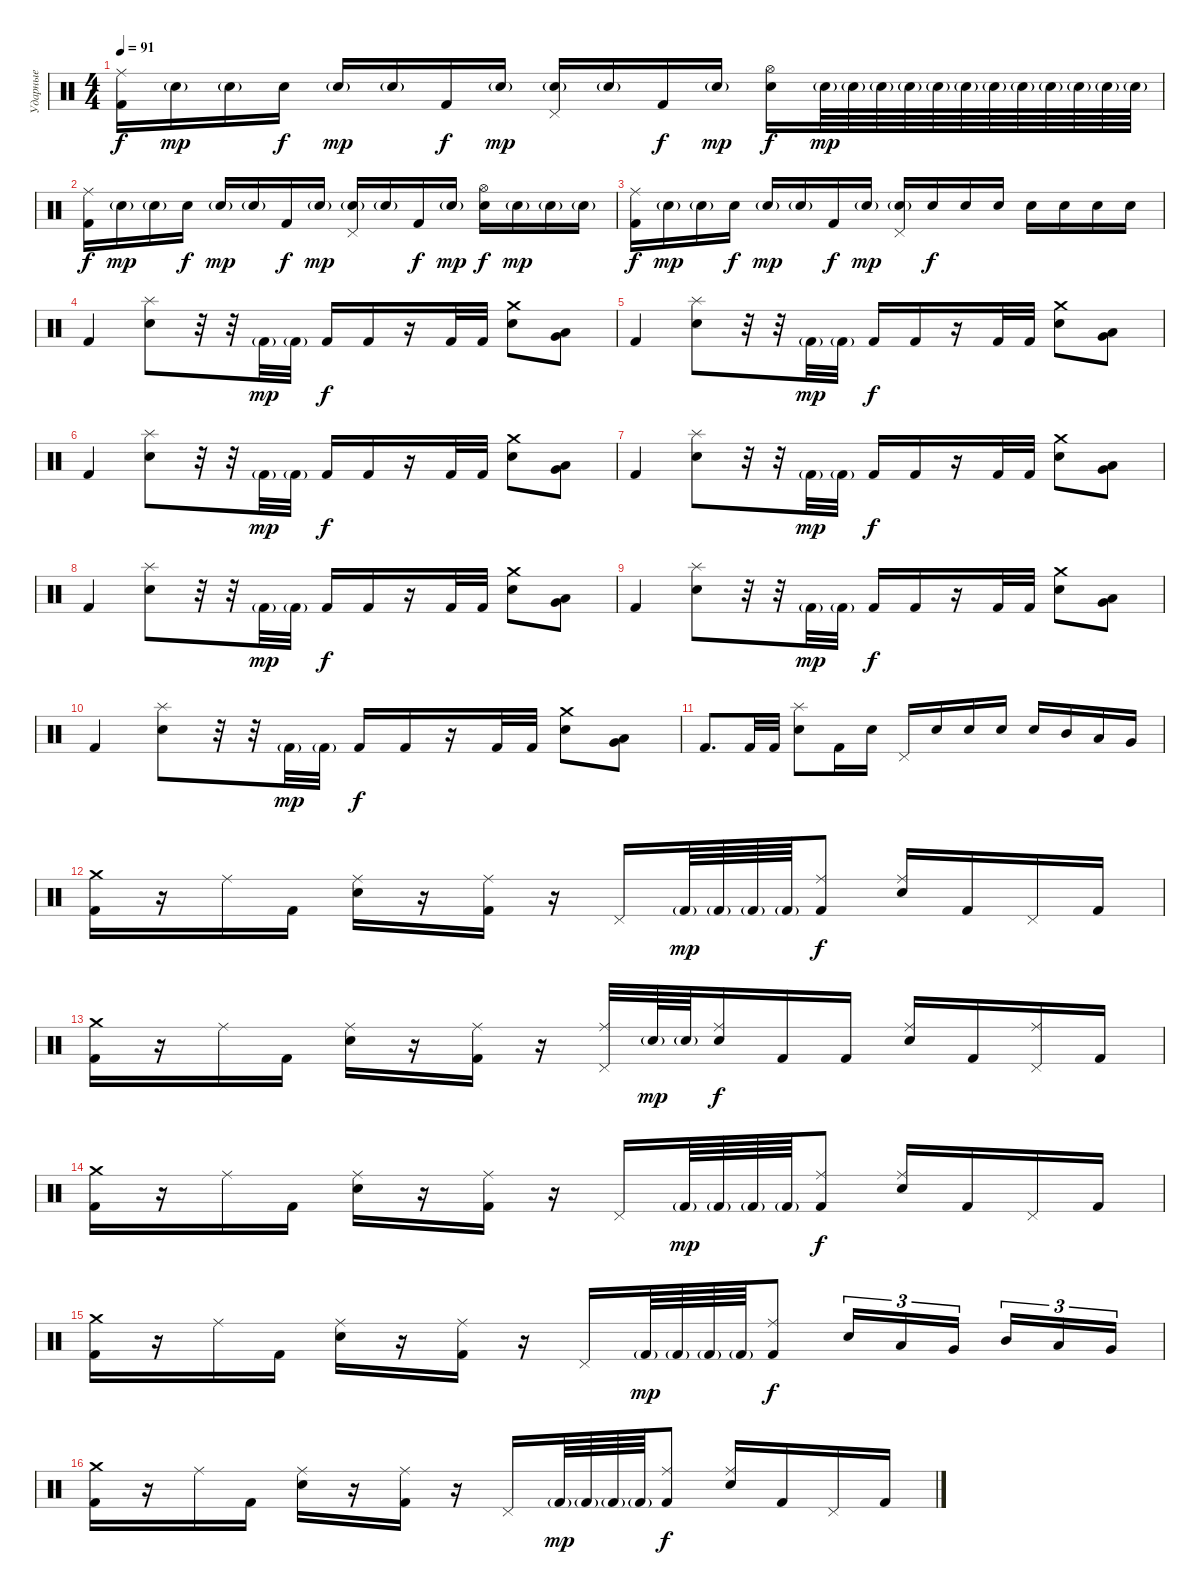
\track ("Ударные" "Ударные") {instrument percussion}
\staff {score}
\articulation defaults
\ts (4 4)
\tempo 91
\clef neutral
\ks c
("Ride (middle)" "Kick (hit) 2").16{dy f} "Snare (hit) 2"{g}.16{dy mp} "Snare (hit) 2"{g}.16 "Snare (hit) 2".16{dy f} "Snare (hit) 2"{g}.16{dy mp} "Snare (hit) 2"{g}.16 "Kick (hit) 2".16{dy f} "Snare (hit) 2"{g}.16{dy mp} ("Pedal Hi-Hat (hit)" "Snare (hit) 2"{g}).16 "Snare (hit) 2"{g}.16 "Kick (hit) 2".16{dy f} "Snare (hit) 2"{g}.16{dy mp} ("Hi-Hat (open)" "Snare (hit) 2").16{dy f} "Snare (hit) 2"{g}.64{dy mp} "Snare (hit) 2"{g}.64 "Snare (hit) 2"{g}.64 "Snare (hit) 2"{g}.64 "Snare (hit) 2"{g}.64 "Snare (hit) 2"{g}.64 "Snare (hit) 2"{g}.64 "Snare (hit) 2"{g}.64 "Snare (hit) 2"{g}.64 "Snare (hit) 2"{g}.64 "Snare (hit) 2"{g}.64 "Snare (hit) 2"{g}.64 |
("Ride (middle)" "Kick (hit) 2").16{dy f} "Snare (hit) 2"{g}.16{dy mp} "Snare (hit) 2"{g}.16 "Snare (hit) 2".16{dy f} "Snare (hit) 2"{g}.16{dy mp} "Snare (hit) 2"{g}.16 "Kick (hit) 2".16{dy f} "Snare (hit) 2"{g}.16{dy mp} ("Pedal Hi-Hat (hit)" "Snare (hit) 2"{g}).16 "Snare (hit) 2"{g}.16 "Kick (hit) 2".16{dy f} "Snare (hit) 2"{g}.16{dy mp} ("Hi-Hat (open)" "Snare (hit) 2").16{dy f} "Snare (hit) 2"{g}.16{dy mp} "Snare (hit) 2"{g}.16 "Snare (hit) 2"{g}.16 |
("Ride (middle)" "Kick (hit) 2").16{dy f} "Snare (hit) 2"{g}.16{dy mp} "Snare (hit) 2"{g}.16 "Snare (hit) 2".16{dy f} "Snare (hit) 2"{g}.16{dy mp} "Snare (hit) 2"{g}.16 "Kick (hit) 2".16{dy f} "Snare (hit) 2"{g}.16{dy mp} ("Pedal Hi-Hat (hit)" "Snare (hit) 2"{g}).16 "Snare (hit) 2".16{dy f} "Snare (hit) 2".16 "Snare (hit) 2".16 "Snare (hit) 2".16 "Snare (hit) 2".16 "Snare (hit) 2".16 "Snare (hit) 2".16 |
"Kick (hit) 2".4 ("Splash (hit)" "Snare (hit) 2").8 r.32 r.32 "Kick (hit) 2"{g}.32{dy mp} "Kick (hit) 2"{g}.32 "Kick (hit) 2".16{dy f} "Kick (hit) 2".16 r.16 "Kick (hit) 2".32 "Kick (hit) 2".32 ("Crash medium (hit)" "Snare (hit) 2").8 ("Low Tom (hit)" "Very Low Tom (hit)").8{bd 30} |
"Kick (hit) 2".4 ("Splash (hit)" "Snare (hit) 2").8 r.32 r.32 "Kick (hit) 2"{g}.32{dy mp} "Kick (hit) 2"{g}.32 "Kick (hit) 2".16{dy f} "Kick (hit) 2".16 r.16 "Kick (hit) 2".32 "Kick (hit) 2".32 ("Crash medium (hit)" "Snare (hit) 2").8 ("Low Tom (hit)" "Very Low Tom (hit)").8{bd 30} |
"Kick (hit) 2".4 ("Splash (hit)" "Snare (hit) 2").8 r.32 r.32 "Kick (hit) 2"{g}.32{dy mp} "Kick (hit) 2"{g}.32 "Kick (hit) 2".16{dy f} "Kick (hit) 2".16 r.16 "Kick (hit) 2".32 "Kick (hit) 2".32 ("Crash medium (hit)" "Snare (hit) 2").8 ("Low Tom (hit)" "Very Low Tom (hit)").8{bd 30} |
"Kick (hit) 2".4 ("Splash (hit)" "Snare (hit) 2").8 r.32 r.32 "Kick (hit) 2"{g}.32{dy mp} "Kick (hit) 2"{g}.32 "Kick (hit) 2".16{dy f} "Kick (hit) 2".16 r.16 "Kick (hit) 2".32 "Kick (hit) 2".32 ("Crash medium (hit)" "Snare (hit) 2").8 ("Low Tom (hit)" "Very Low Tom (hit)").8{bd 30} |
"Kick (hit) 2".4 ("Splash (hit)" "Snare (hit) 2").8 r.32 r.32 "Kick (hit) 2"{g}.32{dy mp} "Kick (hit) 2"{g}.32 "Kick (hit) 2".16{dy f} "Kick (hit) 2".16 r.16 "Kick (hit) 2".32 "Kick (hit) 2".32 ("Crash medium (hit)" "Snare (hit) 2").8 ("Low Tom (hit)" "Very Low Tom (hit)").8{bd 30} |
"Kick (hit) 2".4 ("Splash (hit)" "Snare (hit) 2").8 r.32 r.32 "Kick (hit) 2"{g}.32{dy mp} "Kick (hit) 2"{g}.32 "Kick (hit) 2".16{dy f} "Kick (hit) 2".16 r.16 "Kick (hit) 2".32 "Kick (hit) 2".32 ("Crash medium (hit)" "Snare (hit) 2").8 ("Low Tom (hit)" "Very Low Tom (hit)").8{bd 30} |
"Kick (hit) 2".4 ("Splash (hit)" "Snare (hit) 2").8 r.32 r.32 "Kick (hit) 2"{g}.32{dy mp} "Kick (hit) 2"{g}.32 "Kick (hit) 2".16{dy f} "Kick (hit) 2".16 r.16 "Kick (hit) 2".32 "Kick (hit) 2".32 ("Crash medium (hit)" "Snare (hit) 2").8 ("Low Tom (hit)" "Very Low Tom (hit)").8{bd 30} |
"Kick (hit) 2".8{d} "Kick (hit) 2".32 "Kick (hit) 2".32 ("Splash (hit)" "Snare (hit) 2").8 "Kick (hit) 2".16 "Snare (hit) 2".16 "Pedal Hi-Hat (hit)".16 "Snare (hit) 2".16 "Snare (hit) 2".16 "Snare (hit) 2".16 "Snare (hit) 2".16 "Mid Tom (hit)".16 "Low Tom (hit)".16 "Very Low Tom (hit)".16 |
("Crash medium (hit)" "Kick (hit) 2").16 r.16 "Ride (middle)".16 "Kick (hit) 2".16 ("Ride (middle)" "Snare (hit) 2").16 r.16 ("Ride (middle)" "Kick (hit) 2").16 r.16 "Pedal Hi-Hat (hit)".16 "Kick (hit) 2"{g}.64{dy mp} "Kick (hit) 2"{g}.64 "Kick (hit) 2"{g}.64 "Kick (hit) 2"{g}.64 ("Ride (middle)" "Kick (hit) 2").8{dy f} ("Ride (middle)" "Snare (hit) 2").16 "Kick (hit) 2".16 "Pedal Hi-Hat (hit)".16 "Kick (hit) 2".16 |
("Crash medium (hit)" "Kick (hit) 2").16 r.16 "Ride (middle)".16 "Kick (hit) 2".16 ("Ride (middle)" "Snare (hit) 2").16 r.16 ("Ride (middle)" "Kick (hit) 2").16 r.16 ("Ride (middle)" "Pedal Hi-Hat (hit)").32 "Snare (hit) 2"{g}.64{dy mp} "Snare (hit) 2"{g}.64 ("Ride (middle)" "Snare (hit) 2").16{dy f} "Kick (hit) 2".16 "Kick (hit) 2".16 ("Ride (middle)" "Snare (hit) 2").16 "Kick (hit) 2".16 ("Ride (middle)" "Pedal Hi-Hat (hit)").16 "Kick (hit) 2".16 |
("Crash medium (hit)" "Kick (hit) 2").16 r.16 "Ride (middle)".16 "Kick (hit) 2".16 ("Ride (middle)" "Snare (hit) 2").16 r.16 ("Ride (middle)" "Kick (hit) 2").16 r.16 "Pedal Hi-Hat (hit)".16 "Kick (hit) 2"{g}.64{dy mp} "Kick (hit) 2"{g}.64 "Kick (hit) 2"{g}.64 "Kick (hit) 2"{g}.64 ("Ride (middle)" "Kick (hit) 2").8{dy f} ("Ride (middle)" "Snare (hit) 2").16 "Kick (hit) 2".16 "Pedal Hi-Hat (hit)".16 "Kick (hit) 2".16 |
("Crash medium (hit)" "Kick (hit) 2").16 r.16 "Ride (middle)".16 "Kick (hit) 2".16 ("Ride (middle)" "Snare (hit) 2").16 r.16 ("Ride (middle)" "Kick (hit) 2").16 r.16 "Pedal Hi-Hat (hit)".16 "Kick (hit) 2"{g}.64{dy mp} "Kick (hit) 2"{g}.64 "Kick (hit) 2"{g}.64 "Kick (hit) 2"{g}.64 ("Ride (middle)" "Kick (hit) 2").8{dy f} "Snare (hit) 2".16{tu (3 2)} "Low Tom (hit)".16{tu (3 2)} "Very Low Tom (hit)".16{tu (3 2) beam splitsecondary} "Mid Tom (hit)".16{tu (3 2)} "Low Tom (hit)".16{tu (3 2)} "Very Low Tom (hit)".16{tu (3 2)} |
("Crash medium (hit)" "Kick (hit) 2").16 r.16 "Ride (middle)".16 "Kick (hit) 2".16 ("Ride (middle)" "Snare (hit) 2").16 r.16 ("Ride (middle)" "Kick (hit) 2").16 r.16 "Pedal Hi-Hat (hit)".16 "Kick (hit) 2"{g}.64{dy mp} "Kick (hit) 2"{g}.64 "Kick (hit) 2"{g}.64 "Kick (hit) 2"{g}.64 ("Ride (middle)" "Kick (hit) 2").8{dy f} ("Ride (middle)" "Snare (hit) 2").16 "Kick (hit) 2".16 "Pedal Hi-Hat (hit)".16 "Kick (hit) 2".16
